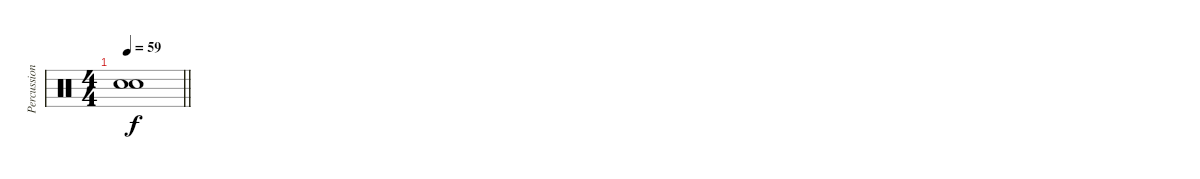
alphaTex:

\track ("Percussioni" "Percussion") {instrument percussion}
\staff {score}
\articulation defaults
\ts (4 4)
\tempo 59
\clef neutral
\barLineRight lightlight
\ks c
("Snare (hit)"{t} "Snare (hit)"{t}).1{dy f}
